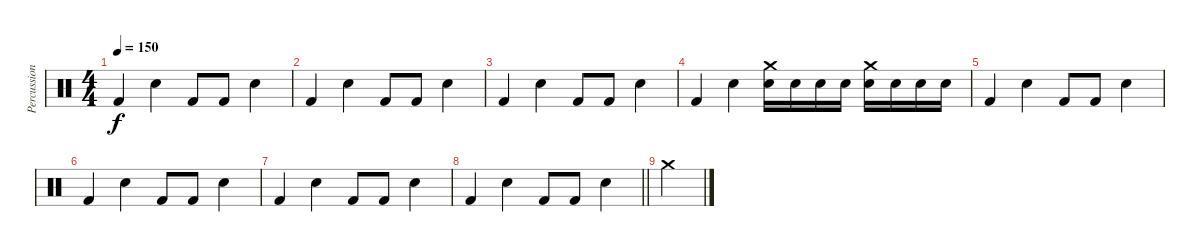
\track ("Percussion" "Percussion") {instrument percussion bank 255}
\staff {score}
\articulation defaults
\ts (4 4)
\tempo 150
\clef neutral
\ks c "Kick (hit) 2".4{dy f} "Electric Snare (hit)".4 "Kick (hit) 2".8 "Kick (hit) 2".8 "Electric Snare (hit)".4
|
"Kick (hit) 2".4 "Electric Snare (hit)".4 "Kick (hit) 2".8 "Kick (hit) 2".8 "Electric Snare (hit)".4 |
"Kick (hit) 2".4 "Electric Snare (hit)".4 "Kick (hit) 2".8 "Kick (hit) 2".8 "Electric Snare (hit)".4 |
"Kick (hit) 2".4 "Electric Snare (hit)".4 ("Crash medium (hit)" "Electric Snare (hit)").16 "Electric Snare (hit)".16 "Electric Snare (hit)".16 "Electric Snare (hit)".16 ("Crash medium (hit)" "Electric Snare (hit)").16 "Electric Snare (hit)".16 "Electric Snare (hit)".16 "Electric Snare (hit)".16 |
"Kick (hit) 2".4 "Electric Snare (hit)".4 "Kick (hit) 2".8 "Kick (hit) 2".8 "Electric Snare (hit)".4 |
"Kick (hit) 2".4 "Electric Snare (hit)".4 "Kick (hit) 2".8 "Kick (hit) 2".8 "Electric Snare (hit)".4 |
"Kick (hit) 2".4 "Electric Snare (hit)".4 "Kick (hit) 2".8 "Kick (hit) 2".8 "Electric Snare (hit)".4 |
\barLineRight lightlight "Kick (hit) 2".4 "Electric Snare (hit)".4 "Kick (hit) 2".8 "Kick (hit) 2".8 "Electric Snare (hit)".4
|
"Crash medium (hit)".4
